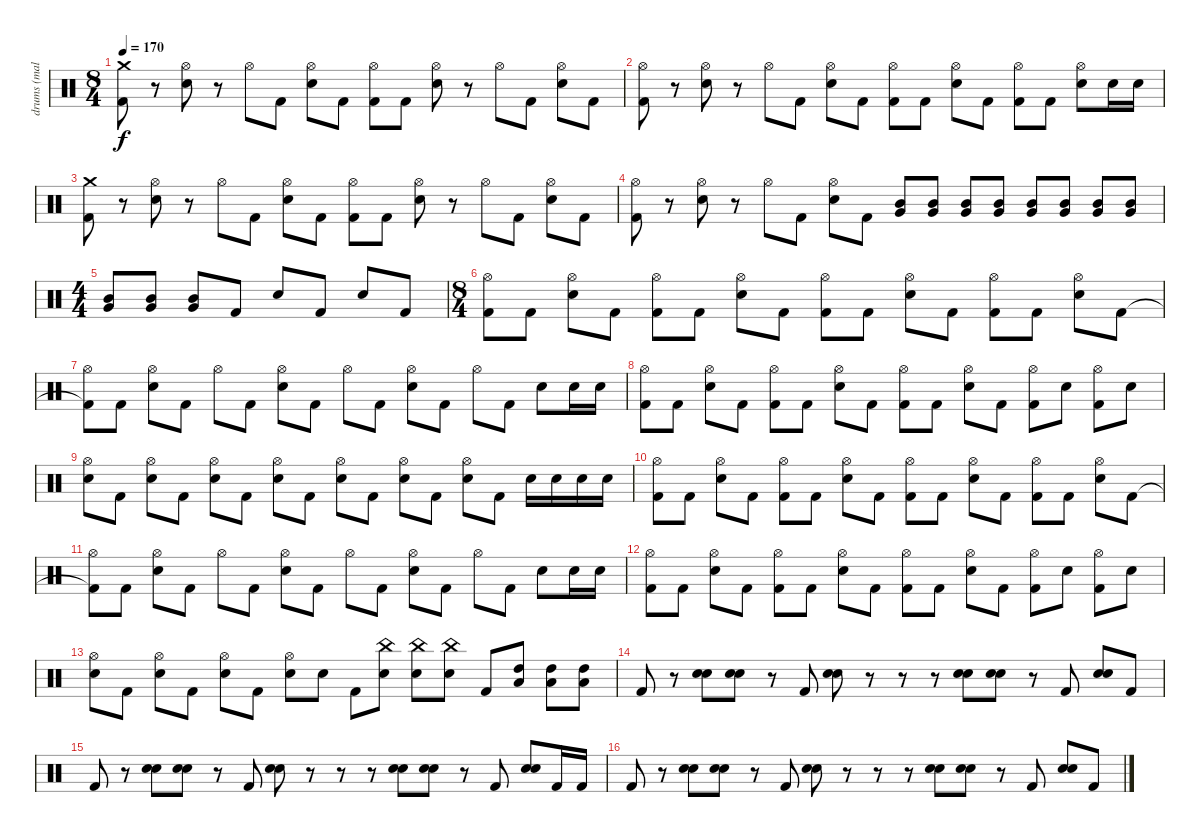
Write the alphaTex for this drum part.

\track ("drums (male)" "drums (mal") {mute instrument percussion}
\staff {score}
\articulation defaults
\ts (8 4)
\tempo 170
\clef neutral
\ks c
("Kick (hit) 2" "Crash medium (hit)").8{dy f} r.8 ("Electric Snare (hit)" "Hi-Hat (open)").8 r.8 "Hi-Hat (open)".8 "Kick (hit) 2".8 ("Electric Snare (hit)" "Hi-Hat (open)").8 "Kick (hit) 2".8 ("Kick (hit) 2" "Hi-Hat (open)").8 "Kick (hit) 2".8 ("Electric Snare (hit)" "Hi-Hat (open)").8 r.8 "Hi-Hat (open)".8 "Kick (hit) 2".8 ("Electric Snare (hit)" "Hi-Hat (open)").8 "Kick (hit) 2".8 |
("Kick (hit) 2" "Hi-Hat (open)").8 r.8 ("Electric Snare (hit)" "Hi-Hat (open)").8 r.8 "Hi-Hat (open)".8 "Kick (hit) 2".8 ("Electric Snare (hit)" "Hi-Hat (open)").8 "Kick (hit) 2".8 ("Kick (hit) 2" "Hi-Hat (open)").8 "Kick (hit) 2".8 ("Electric Snare (hit)" "Hi-Hat (open)").8 "Kick (hit) 2".8 ("Kick (hit) 2" "Hi-Hat (open)").8 "Kick (hit) 2".8 ("Electric Snare (hit)" "Hi-Hat (open)").8 "Electric Snare (hit)".16 "Electric Snare (hit)".16 |
("Kick (hit) 2" "Crash medium (hit)").8 r.8 ("Electric Snare (hit)" "Hi-Hat (open)").8 r.8 "Hi-Hat (open)".8 "Kick (hit) 2".8 ("Electric Snare (hit)" "Hi-Hat (open)").8 "Kick (hit) 2".8 ("Kick (hit) 2" "Hi-Hat (open)").8 "Kick (hit) 2".8 ("Electric Snare (hit)" "Hi-Hat (open)").8 r.8 "Hi-Hat (open)".8 "Kick (hit) 2".8 ("Electric Snare (hit)" "Hi-Hat (open)").8 "Kick (hit) 2".8 |
("Kick (hit) 2" "Hi-Hat (open)").8 r.8 ("Electric Snare (hit)" "Hi-Hat (open)").8 r.8 "Hi-Hat (open)".8 "Kick (hit) 2".8 ("Electric Snare (hit)" "Hi-Hat (open)").8 "Kick (hit) 2".8 ("Mid Tom (hit)" "Very Low Tom (hit)").8 ("Mid Tom (hit)" "Very Low Tom (hit)").8 ("Mid Tom (hit)" "Very Low Tom (hit)").8 ("Mid Tom (hit)" "Very Low Tom (hit)").8 ("Mid Tom (hit)" "Very Low Tom (hit)").8 ("Mid Tom (hit)" "Very Low Tom (hit)").8 ("Mid Tom (hit)" "Very Low Tom (hit)").8 ("Mid Tom (hit)" "Very Low Tom (hit)").8 |
\ts (4 4)
("Mid Tom (hit)" "Very Low Tom (hit)").8 ("Mid Tom (hit)" "Very Low Tom (hit)").8 ("Mid Tom (hit)" "Very Low Tom (hit)").8 "Kick (hit) 2".8 "Electric Snare (hit)".8 "Kick (hit) 2".8 "Electric Snare (hit)".8 "Kick (hit) 2".8 |
\ts (8 4)
("Kick (hit) 2" "Hi-Hat (open)").8 "Kick (hit) 2".8 ("Electric Snare (hit)" "Hi-Hat (open)").8 "Kick (hit) 2".8 ("Kick (hit) 2" "Hi-Hat (open)").8 "Kick (hit) 2".8 ("Electric Snare (hit)" "Hi-Hat (open)").8 "Kick (hit) 2".8 ("Kick (hit) 2" "Hi-Hat (open)").8 "Kick (hit) 2".8 ("Electric Snare (hit)" "Hi-Hat (open)").8 "Kick (hit) 2".8 ("Kick (hit) 2" "Hi-Hat (open)").8 "Kick (hit) 2".8 ("Electric Snare (hit)" "Hi-Hat (open)").8 "Kick (hit) 2".8 |
("Kick (hit) 2"{t} "Hi-Hat (open)").8 "Kick (hit) 2".8 ("Electric Snare (hit)" "Hi-Hat (open)").8 "Kick (hit) 2".8 "Hi-Hat (open)".8 "Kick (hit) 2".8 ("Electric Snare (hit)" "Hi-Hat (open)").8 "Kick (hit) 2".8 "Hi-Hat (open)".8 "Kick (hit) 2".8 ("Electric Snare (hit)" "Hi-Hat (open)").8 "Kick (hit) 2".8 "Hi-Hat (open)".8 "Kick (hit) 2".8 "Electric Snare (hit)".8 "Electric Snare (hit)".16 "Electric Snare (hit)".16 |
("Kick (hit) 2" "Hi-Hat (open)").8 "Kick (hit) 2".8 ("Electric Snare (hit)" "Hi-Hat (open)").8 "Kick (hit) 2".8 ("Kick (hit) 2" "Hi-Hat (open)").8 "Kick (hit) 2".8 ("Electric Snare (hit)" "Hi-Hat (open)").8 "Kick (hit) 2".8 ("Kick (hit) 2" "Hi-Hat (open)").8 "Kick (hit) 2".8 ("Electric Snare (hit)" "Hi-Hat (open)").8 "Kick (hit) 2".8 ("Kick (hit) 2" "Hi-Hat (open)").8 "Electric Snare (hit)".8 ("Kick (hit) 2" "Hi-Hat (open)").8 "Electric Snare (hit)".8 |
("Electric Snare (hit)" "Hi-Hat (open)").8 "Kick (hit) 2".8 ("Electric Snare (hit)" "Hi-Hat (open)").8 "Kick (hit) 2".8 ("Electric Snare (hit)" "Hi-Hat (open)").8 "Kick (hit) 2".8 ("Electric Snare (hit)" "Hi-Hat (open)").8 "Kick (hit) 2".8 ("Electric Snare (hit)" "Hi-Hat (open)").8 "Kick (hit) 2".8 ("Electric Snare (hit)" "Hi-Hat (open)").8 "Kick (hit) 2".8 ("Electric Snare (hit)" "Hi-Hat (open)").8 "Kick (hit) 2".8 "Electric Snare (hit)".16 "Electric Snare (hit)".16 "Electric Snare (hit)".16 "Electric Snare (hit)".16 |
("Kick (hit) 2" "Hi-Hat (open)").8 "Kick (hit) 2".8 ("Electric Snare (hit)" "Hi-Hat (open)").8 "Kick (hit) 2".8 ("Kick (hit) 2" "Hi-Hat (open)").8 "Kick (hit) 2".8 ("Electric Snare (hit)" "Hi-Hat (open)").8 "Kick (hit) 2".8 ("Kick (hit) 2" "Hi-Hat (open)").8 "Kick (hit) 2".8 ("Electric Snare (hit)" "Hi-Hat (open)").8 "Kick (hit) 2".8 ("Kick (hit) 2" "Hi-Hat (open)").8 "Kick (hit) 2".8 ("Electric Snare (hit)" "Hi-Hat (open)").8 "Kick (hit) 2".8 |
("Kick (hit) 2"{t} "Hi-Hat (open)").8 "Kick (hit) 2".8 ("Electric Snare (hit)" "Hi-Hat (open)").8 "Kick (hit) 2".8 "Hi-Hat (open)".8 "Kick (hit) 2".8 ("Electric Snare (hit)" "Hi-Hat (open)").8 "Kick (hit) 2".8 "Hi-Hat (open)".8 "Kick (hit) 2".8 ("Electric Snare (hit)" "Hi-Hat (open)").8 "Kick (hit) 2".8 "Hi-Hat (open)".8 "Kick (hit) 2".8 "Electric Snare (hit)".8 "Electric Snare (hit)".16 "Electric Snare (hit)".16 |
("Kick (hit) 2" "Hi-Hat (open)").8 "Kick (hit) 2".8 ("Electric Snare (hit)" "Hi-Hat (open)").8 "Kick (hit) 2".8 ("Kick (hit) 2" "Hi-Hat (open)").8 "Kick (hit) 2".8 ("Electric Snare (hit)" "Hi-Hat (open)").8 "Kick (hit) 2".8 ("Kick (hit) 2" "Hi-Hat (open)").8 "Kick (hit) 2".8 ("Electric Snare (hit)" "Hi-Hat (open)").8 "Kick (hit) 2".8 ("Kick (hit) 2" "Hi-Hat (open)").8 "Electric Snare (hit)".8 ("Kick (hit) 2" "Hi-Hat (open)").8 "Electric Snare (hit)".8 |
("Electric Snare (hit)" "Hi-Hat (open)").8 "Kick (hit) 2".8 ("Electric Snare (hit)" "Hi-Hat (open)").8 "Kick (hit) 2".8 ("Electric Snare (hit)" "Hi-Hat (open)").8 "Kick (hit) 2".8 ("Electric Snare (hit)" "Hi-Hat (open)").8 "Electric Snare (hit)".8 "Kick (hit) 2".8 ("Electric Snare (hit)" "China (hit)").8 ("Electric Snare (hit)" "China (hit)").8 ("Electric Snare (hit)" "China (hit)").8 "Kick (hit) 2".8 ("High Tom (hit)" "Low Tom (hit)").8 ("High Tom (hit)" "Low Tom (hit)").8 ("High Tom (hit)" "Low Tom (hit)").8 |
"Kick (hit) 2".8 r.8 ("Electric Snare (hit)" "Hand Clap (hit)").8 ("Electric Snare (hit)" "Hand Clap (hit)").8 r.8 "Kick (hit) 2".8 ("Electric Snare (hit)" "Hand Clap (hit)").8 r.8 r.8 r.8 ("Electric Snare (hit)" "Hand Clap (hit)").8 ("Electric Snare (hit)" "Hand Clap (hit)").8 r.8 "Kick (hit) 2".8 ("Electric Snare (hit)" "Hand Clap (hit)").8 "Kick (hit) 2".8 |
"Kick (hit) 2".8 r.8 ("Electric Snare (hit)" "Hand Clap (hit)").8 ("Electric Snare (hit)" "Hand Clap (hit)").8 r.8 "Kick (hit) 2".8 ("Electric Snare (hit)" "Hand Clap (hit)").8 r.8 r.8 r.8 ("Electric Snare (hit)" "Hand Clap (hit)").8 ("Electric Snare (hit)" "Hand Clap (hit)").8 r.8 "Kick (hit) 2".8 ("Electric Snare (hit)" "Hand Clap (hit)").8 "Kick (hit) 2".16 "Kick (hit) 2".16 |
"Kick (hit) 2".8 r.8 ("Electric Snare (hit)" "Hand Clap (hit)").8 ("Electric Snare (hit)" "Hand Clap (hit)").8 r.8 "Kick (hit) 2".8 ("Electric Snare (hit)" "Hand Clap (hit)").8 r.8 r.8 r.8 ("Electric Snare (hit)" "Hand Clap (hit)").8 ("Electric Snare (hit)" "Hand Clap (hit)").8 r.8 "Kick (hit) 2".8 ("Electric Snare (hit)" "Hand Clap (hit)").8 "Kick (hit) 2".8
